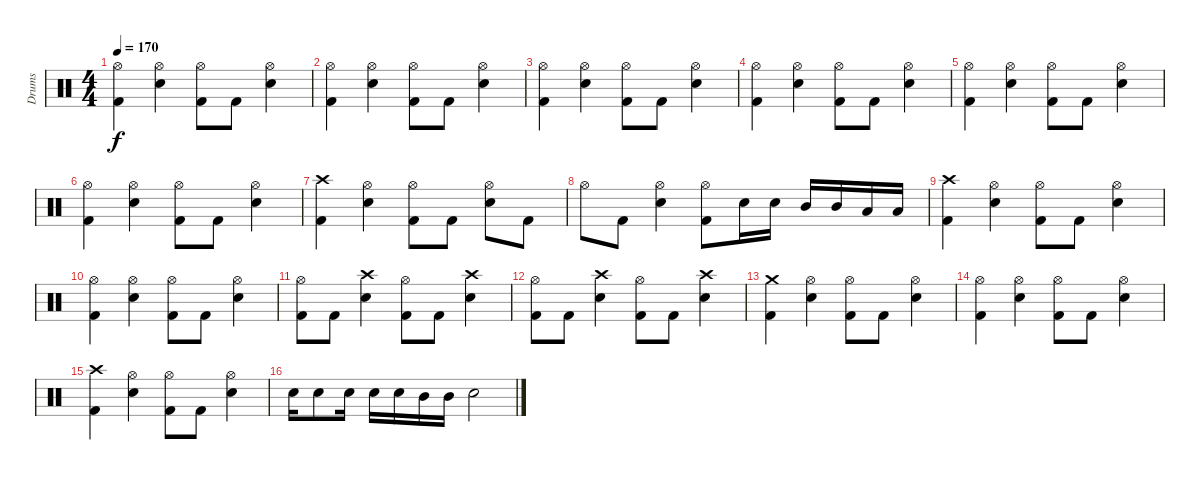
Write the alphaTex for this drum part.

\track ("Drums" "Drums") {instrument percussion}
\staff {score}
\articulation defaults
\ts (4 4)
\tempo 170
\clef neutral
\ks c
("Hi-Hat (open)" "Kick (hit) 2").4{dy f} ("Hi-Hat (open)" "Snare (hit) 2").4 ("Hi-Hat (open)" "Kick (hit) 2").8 "Kick (hit) 2".8 ("Hi-Hat (open)" "Snare (hit) 2").4 |
("Hi-Hat (open)" "Kick (hit) 2").4 ("Hi-Hat (open)" "Snare (hit) 2").4 ("Hi-Hat (open)" "Kick (hit) 2").8 "Kick (hit) 2".8 ("Hi-Hat (open)" "Snare (hit) 2").4 |
("Hi-Hat (open)" "Kick (hit) 2").4 ("Hi-Hat (open)" "Snare (hit) 2").4 ("Hi-Hat (open)" "Kick (hit) 2").8 "Kick (hit) 2".8 ("Hi-Hat (open)" "Snare (hit) 2").4 |
("Hi-Hat (open)" "Kick (hit) 2").4 ("Hi-Hat (open)" "Snare (hit) 2").4 ("Hi-Hat (open)" "Kick (hit) 2").8 "Kick (hit) 2".8 ("Hi-Hat (open)" "Snare (hit) 2").4 |
("Hi-Hat (open)" "Kick (hit) 2").4 ("Hi-Hat (open)" "Snare (hit) 2").4 ("Hi-Hat (open)" "Kick (hit) 2").8 "Kick (hit) 2".8 ("Hi-Hat (open)" "Snare (hit) 2").4 |
("Hi-Hat (open)" "Kick (hit) 2").4 ("Hi-Hat (open)" "Snare (hit) 2").4 ("Hi-Hat (open)" "Kick (hit) 2").8 "Kick (hit) 2".8 ("Hi-Hat (open)" "Snare (hit) 2").4 |
("Crash high (hit)" "Kick (hit) 2").4 ("Hi-Hat (open)" "Snare (hit) 2").4 ("Hi-Hat (open)" "Kick (hit) 2").8 "Kick (hit) 2".8 ("Hi-Hat (open)" "Snare (hit) 2").8 "Kick (hit) 2".8 |
"Hi-Hat (open)".8 "Kick (hit) 2".8 ("Hi-Hat (open)" "Snare (hit) 2").4 ("Hi-Hat (open)" "Kick (hit) 2").8 "Snare (hit) 2".16 "Snare (hit) 2".16 "Mid Tom (hit)".16 "Mid Tom (hit)".16 "Low Tom (hit)".16 "Low Tom (hit)".16 |
("Crash high (hit)" "Kick (hit) 2").4 ("Hi-Hat (open)" "Snare (hit) 2").4 ("Hi-Hat (open)" "Kick (hit) 2").8 "Kick (hit) 2".8 ("Hi-Hat (open)" "Snare (hit) 2").4 |
("Hi-Hat (open)" "Kick (hit) 2").4 ("Hi-Hat (open)" "Snare (hit) 2").4 ("Hi-Hat (open)" "Kick (hit) 2").8 "Kick (hit) 2".8 ("Hi-Hat (open)" "Snare (hit) 2").4 |
("Hi-Hat (open)" "Kick (hit) 2").8 "Kick (hit) 2".8 ("Crash high (hit)" "Snare (hit) 2").4 ("Hi-Hat (open)" "Kick (hit) 2").8 "Kick (hit) 2".8 ("Crash high (hit)" "Snare (hit) 2").4 |
("Hi-Hat (open)" "Kick (hit) 2").8 "Kick (hit) 2".8 ("Crash high (hit)" "Snare (hit) 2").4 ("Hi-Hat (open)" "Kick (hit) 2").8 "Kick (hit) 2".8 ("Crash high (hit)" "Snare (hit) 2").4 |
("Crash medium (hit)" "Kick (hit) 2").4 ("Hi-Hat (open)" "Snare (hit) 2").4 ("Hi-Hat (open)" "Kick (hit) 2").8 "Kick (hit) 2".8 ("Hi-Hat (open)" "Snare (hit) 2").4 |
("Hi-Hat (open)" "Kick (hit) 2").4 ("Hi-Hat (open)" "Snare (hit) 2").4 ("Hi-Hat (open)" "Kick (hit) 2").8 "Kick (hit) 2".8 ("Hi-Hat (open)" "Snare (hit) 2").4 |
("Crash high (hit)" "Kick (hit) 2").4 ("Hi-Hat (open)" "Snare (hit) 2").4 ("Hi-Hat (open)" "Kick (hit) 2").8 "Kick (hit) 2".8 ("Hi-Hat (open)" "Snare (hit) 2").4 |
"Snare (hit) 2".16 "Snare (hit) 2".8 "Snare (hit) 2".16 "Snare (hit) 2".16 "Snare (hit) 2".16 "Mid Tom (hit)".16 "Mid Tom (hit)".16 "Snare (hit) 2".2
